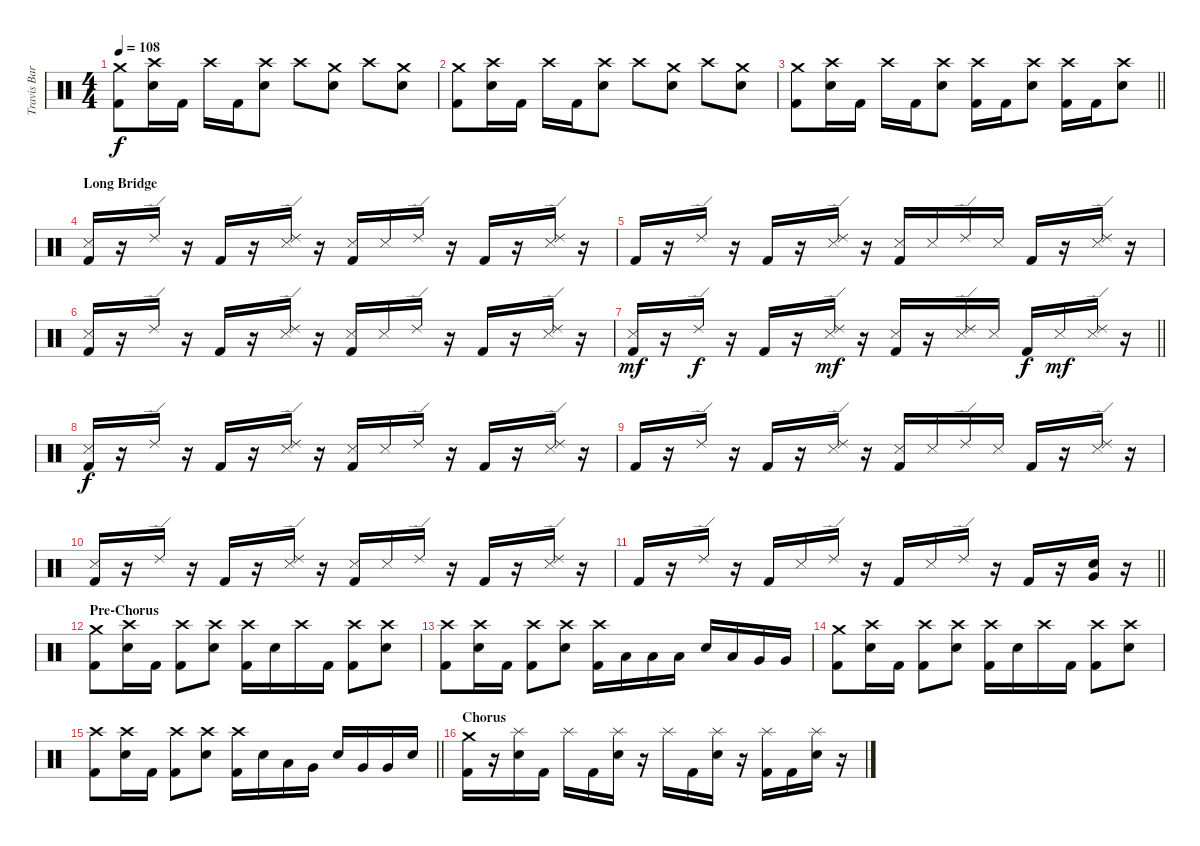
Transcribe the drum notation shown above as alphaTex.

\track ("Travis Barker" "Travis Bar") {instrument percussion}
\staff {score}
\articulation defaults
\ts (4 4)
\tempo 108
\clef neutral
\ks c
("Crash medium (hit)" "Kick (hit) 2").8{dy f} ("Crash high (hit)" "Electric Snare (hit)").16 "Kick (hit) 2".16 "Crash high (hit)".16 "Kick (hit) 2".16 ("Crash high (hit)" "Electric Snare (hit)").8 "Crash high (hit)".8 ("Crash medium (hit)" "Electric Snare (hit)").8 "Crash high (hit)".8 ("Crash medium (hit)" "Electric Snare (hit)").8 |
("Crash medium (hit)" "Kick (hit) 2").8 ("Crash high (hit)" "Electric Snare (hit)").16 "Kick (hit) 2".16 "Crash high (hit)".16 "Kick (hit) 2".16 ("Crash high (hit)" "Electric Snare (hit)").8 "Crash high (hit)".8 ("Crash medium (hit)" "Electric Snare (hit)").8 "Crash high (hit)".8 ("Crash medium (hit)" "Electric Snare (hit)").8 |
\barLineRight lightlight
("Crash medium (hit)" "Kick (hit) 2").8 ("Crash high (hit)" "Electric Snare (hit)").16 "Kick (hit) 2".16 "Crash high (hit)".16 "Kick (hit) 2".16 ("Crash high (hit)" "Electric Snare (hit)").8 ("Crash high (hit)" "Kick (hit) 2").16 "Kick (hit) 2".16 ("Crash high (hit)" "Electric Snare (hit)").8 ("Crash high (hit)" "Kick (hit) 2").16 "Kick (hit) 2".16 ("Crash high (hit)" "Electric Snare (hit)").8 |
\section ("" "Long Bridge")
("Snare (side stick) 3" "Kick (hit) 2").16 r.16 "Ride (edge) 2".16 r.16 "Kick (hit) 2".16 r.16 ("Ride (edge) 2" "Snare (side stick) 3").16 r.16 ("Snare (side stick) 3" "Kick (hit) 2").16 "Snare (side stick) 3".16 "Ride (edge) 2".16 r.16 "Kick (hit) 2".16 r.16 ("Ride (edge) 2" "Snare (side stick) 3").16 r.16 |
"Kick (hit) 2".16 r.16 "Ride (edge) 2".16 r.16 "Kick (hit) 2".16 r.16 ("Ride (edge) 2" "Snare (side stick) 3").16 r.16 ("Snare (side stick) 3" "Kick (hit) 2").16 "Snare (side stick) 3".16 "Ride (edge) 2".16 "Snare (side stick) 3".16 "Kick (hit) 2".16 r.16 ("Ride (edge) 2" "Snare (side stick) 3").16 r.16 |
("Snare (side stick) 3" "Kick (hit) 2").16 r.16 "Ride (edge) 2".16 r.16 "Kick (hit) 2".16 r.16 ("Ride (edge) 2" "Snare (side stick) 3").16 r.16 ("Snare (side stick) 3" "Kick (hit) 2").16 "Snare (side stick) 3".16 "Ride (edge) 2".16 r.16 "Kick (hit) 2".16 r.16 ("Ride (edge) 2" "Snare (side stick) 3").16 r.16 |
\barLineRight lightlight
("Snare (side stick) 3" "Kick (hit) 2").16{dy mf} r.16 "Ride (edge) 2".16{dy f} r.16 "Kick (hit) 2".16 r.16 ("Ride (edge) 2" "Snare (side stick) 3").16{dy mf} r.16 ("Snare (side stick) 3" "Kick (hit) 2").16 r.16 ("Ride (edge) 2" "Snare (side stick) 3").16 "Snare (side stick) 3".16 "Kick (hit) 2".16{dy f} "Snare (side stick) 3".16{dy mf} ("Ride (edge) 2" "Snare (side stick) 3").16 r.16 |
("Snare (side stick) 3" "Kick (hit) 2").16{dy f} r.16 "Ride (edge) 2".16 r.16 "Kick (hit) 2".16 r.16 ("Ride (edge) 2" "Snare (side stick) 3").16 r.16 ("Snare (side stick) 3" "Kick (hit) 2").16 "Snare (side stick) 3".16 "Ride (edge) 2".16 r.16 "Kick (hit) 2".16 r.16 ("Ride (edge) 2" "Snare (side stick) 3").16 r.16 |
"Kick (hit) 2".16 r.16 "Ride (edge) 2".16 r.16 "Kick (hit) 2".16 r.16 ("Ride (edge) 2" "Snare (side stick) 3").16 r.16 ("Snare (side stick) 3" "Kick (hit) 2").16 "Snare (side stick) 3".16 "Ride (edge) 2".16 "Snare (side stick) 3".16 "Kick (hit) 2".16 r.16 ("Ride (edge) 2" "Snare (side stick) 3").16 r.16 |
("Snare (side stick) 3" "Kick (hit) 2").16 r.16 "Ride (edge) 2".16 r.16 "Kick (hit) 2".16 r.16 ("Ride (edge) 2" "Snare (side stick) 3").16 r.16 ("Snare (side stick) 3" "Kick (hit) 2").16 "Snare (side stick) 3".16 "Ride (edge) 2".16 r.16 "Kick (hit) 2".16 r.16 ("Ride (edge) 2" "Snare (side stick) 3").16 r.16 |
\barLineRight lightlight "Kick (hit) 2".16
r.16 "Ride (edge) 2".16 r.16 "Kick (hit) 2".16 "Snare (side stick) 3".16 "Ride (edge) 2".16 r.16 "Kick (hit) 2".16 "Snare (side stick) 3".16 "Ride (edge) 2".16 r.16 "Kick (hit) 2".16 r.16 ("Electric Snare (hit)" "Very Low Tom (hit)").16 r.16 |
\section ("" "Pre-Chorus")
("Crash medium (hit)" "Kick (hit) 2").8 ("Crash high (hit)" "Electric Snare (hit)").16 "Kick (hit) 2".16 ("Crash high (hit)" "Kick (hit) 2").8 ("Crash high (hit)" "Electric Snare (hit)").8 ("Crash high (hit)" "Kick (hit) 2").16 "Electric Snare (hit)".16 "Crash high (hit)".16 "Kick (hit) 2".16 ("Crash high (hit)" "Kick (hit) 2").8 ("Crash high (hit)" "Electric Snare (hit)").8 |
("Crash high (hit)" "Kick (hit) 2").8 ("Crash high (hit)" "Electric Snare (hit)").16 "Kick (hit) 2".16 ("Crash high (hit)" "Kick (hit) 2").8 ("Crash high (hit)" "Electric Snare (hit)").8 ("Crash high (hit)" "Kick (hit) 2").16 "Low Tom (hit)".16 "Low Tom (hit)".16 "Low Tom (hit)".16 "Electric Snare (hit)".16 "Low Tom (hit)".16 "Very Low Tom (hit)".16 "Very Low Tom (hit)".16 |
("Crash medium (hit)" "Kick (hit) 2").8 ("Crash high (hit)" "Electric Snare (hit)").16 "Kick (hit) 2".16 ("Crash high (hit)" "Kick (hit) 2").8 ("Crash high (hit)" "Electric Snare (hit)").8 ("Crash high (hit)" "Kick (hit) 2").16 "Electric Snare (hit)".16 "Crash high (hit)".16 "Kick (hit) 2".16 ("Crash high (hit)" "Kick (hit) 2").8 ("Crash high (hit)" "Electric Snare (hit)").8 |
\barLineRight lightlight
("Crash high (hit)" "Kick (hit) 2").8 ("Crash high (hit)" "Electric Snare (hit)").16 "Kick (hit) 2".16 ("Crash high (hit)" "Kick (hit) 2").8 ("Crash high (hit)" "Electric Snare (hit)").8 ("Crash high (hit)" "Kick (hit) 2").16 "Electric Snare (hit)".16 "Low Tom (hit)".16 "Very Low Tom (hit)".16 "Electric Snare (hit)".16 "Very Low Tom (hit)".16 "Very Low Tom (hit)".16 "Electric Snare (hit)".16 |
\section ("" "Chorus")
("Crash medium (hit)" "Kick (hit) 2").16 r.16 ("Splash (hit)" "Electric Snare (hit)").16 "Kick (hit) 2".16 "Splash (hit)".16 "Kick (hit) 2".16 ("Splash (hit)" "Electric Snare (hit)").16 r.16 "Splash (hit)".16 "Kick (hit) 2".16 ("Splash (hit)" "Electric Snare (hit)").16 r.16 ("Splash (hit)" "Kick (hit) 2").16 "Kick (hit) 2".16 ("Splash (hit)" "Electric Snare (hit)").16 r.16
